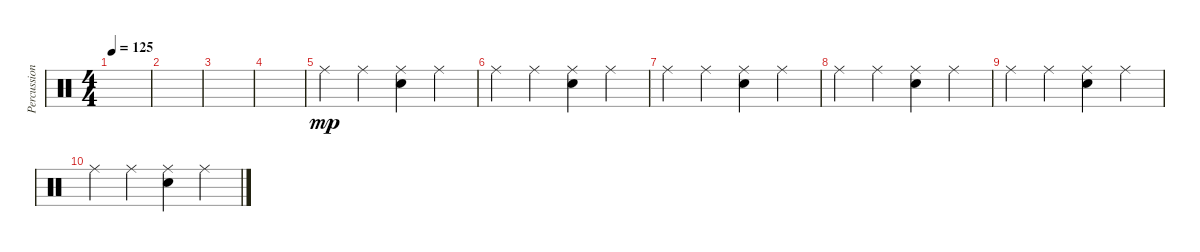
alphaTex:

\track ("Percussion" "Percussion") {instrument percussion}
\staff {score}
\articulation defaults
\ts (4 4)
\tempo 125
\clef neutral
\ks c
|
|
|
|
"Ride (middle)".4{dy mp} "Ride (middle)".4 ("Ride (middle)" "Snare (hit) 2").4 "Ride (middle)".4 |
"Ride (middle)".4 "Ride (middle)".4 ("Ride (middle)" "Snare (hit) 2").4 "Ride (middle)".4 |
"Ride (middle)".4 "Ride (middle)".4 ("Ride (middle)" "Snare (hit) 2").4 "Ride (middle)".4 |
"Ride (middle)".4 "Ride (middle)".4 ("Ride (middle)" "Snare (hit) 2").4 "Ride (middle)".4 |
"Ride (middle)".4 "Ride (middle)".4 ("Ride (middle)" "Snare (hit) 2").4 "Ride (middle)".4 |
"Ride (middle)".4 "Ride (middle)".4 ("Ride (middle)" "Snare (hit) 2").4 "Ride (middle)".4
